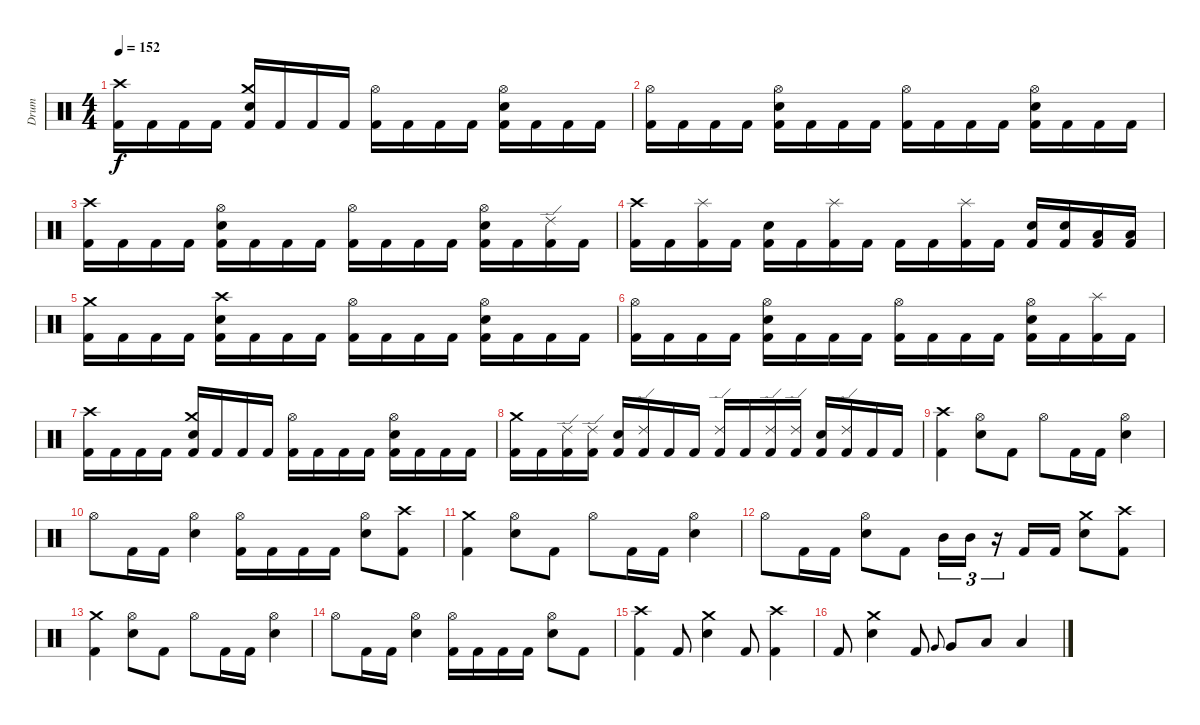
\track ("Drum" "Drum") {instrument percussion}
\staff {score}
\articulation defaults
\ts (4 4)
\tempo 152
\clef neutral
\ks c
("Crash high (hit)" "Kick (hit) 2").16{dy f} "Kick (hit) 2".16 "Kick (hit) 2".16 "Kick (hit) 2".16 ("Crash medium (hit)" "Snare (hit) 2" "Kick (hit) 2").16 "Kick (hit) 2".16 "Kick (hit) 2".16 "Kick (hit) 2".16 ("Hi-Hat (open)" "Kick (hit) 2").16 "Kick (hit) 2".16 "Kick (hit) 2".16 "Kick (hit) 2".16 ("Hi-Hat (open)" "Snare (hit) 2" "Kick (hit) 2").16 "Kick (hit) 2".16 "Kick (hit) 2".16 "Kick (hit) 2".16 |
("Hi-Hat (open)" "Kick (hit) 2").16 "Kick (hit) 2".16 "Kick (hit) 2".16 "Kick (hit) 2".16 ("Hi-Hat (open)" "Snare (hit) 2" "Kick (hit) 2").16 "Kick (hit) 2".16 "Kick (hit) 2".16 "Kick (hit) 2".16 ("Hi-Hat (open)" "Kick (hit) 2").16 "Kick (hit) 2".16 "Kick (hit) 2".16 "Kick (hit) 2".16 ("Hi-Hat (open)" "Snare (hit) 2" "Kick (hit) 2").16 "Kick (hit) 2".16 "Kick (hit) 2".16 "Kick (hit) 2".16 |
("Crash high (hit)" "Kick (hit) 2").16 "Kick (hit) 2".16 "Kick (hit) 2".16 "Kick (hit) 2".16 ("Hi-Hat (open)" "Snare (hit) 2" "Kick (hit) 2").16 "Kick (hit) 2".16 "Kick (hit) 2".16 "Kick (hit) 2".16 ("Hi-Hat (open)" "Kick (hit) 2").16 "Kick (hit) 2".16 "Kick (hit) 2".16 "Kick (hit) 2".16 ("Hi-Hat (open)" "Snare (hit) 2" "Kick (hit) 2").16 "Kick (hit) 2".16 ("Ride (edge) 2" "Kick (hit) 2").16 "Kick (hit) 2".16 |
("Crash high (hit)" "Kick (hit) 2").16 "Kick (hit) 2".16 ("Splash (hit)" "Kick (hit) 2").16 "Kick (hit) 2".16 ("Snare (hit) 2" "Kick (hit) 2").16 "Kick (hit) 2".16 ("Splash (hit)" "Kick (hit) 2").16 "Kick (hit) 2".16 "Kick (hit) 2".16 "Kick (hit) 2".16 ("Splash (hit)" "Kick (hit) 2").16 "Kick (hit) 2".16 ("Snare (hit) 2" "Kick (hit) 2").16 ("Snare (hit) 2" "Kick (hit) 2").16 ("Low Tom (hit)" "Kick (hit) 2").16 ("Low Tom (hit)" "Kick (hit) 2").16 |
("Crash medium (hit)" "Kick (hit) 2").16 "Kick (hit) 2".16 "Kick (hit) 2".16 "Kick (hit) 2".16 ("Crash high (hit)" "Snare (hit) 2" "Kick (hit) 2").16 "Kick (hit) 2".16 "Kick (hit) 2".16 "Kick (hit) 2".16 ("Hi-Hat (open)" "Kick (hit) 2").16 "Kick (hit) 2".16 "Kick (hit) 2".16 "Kick (hit) 2".16 ("Hi-Hat (open)" "Snare (hit) 2" "Kick (hit) 2").16 "Kick (hit) 2".16 "Kick (hit) 2".16 "Kick (hit) 2".16 |
("Hi-Hat (open)" "Kick (hit) 2").16 "Kick (hit) 2".16 "Kick (hit) 2".16 "Kick (hit) 2".16 ("Hi-Hat (open)" "Snare (hit) 2" "Kick (hit) 2").16 "Kick (hit) 2".16 "Kick (hit) 2".16 "Kick (hit) 2".16 ("Hi-Hat (open)" "Kick (hit) 2").16 "Kick (hit) 2".16 "Kick (hit) 2".16 "Kick (hit) 2".16 ("Hi-Hat (open)" "Snare (hit) 2" "Kick (hit) 2").16 "Kick (hit) 2".16 ("Splash (hit)" "Kick (hit) 2").16 "Kick (hit) 2".16 |
("Crash high (hit)" "Kick (hit) 2").16 "Kick (hit) 2".16 "Kick (hit) 2".16 "Kick (hit) 2".16 ("Crash medium (hit)" "Snare (hit) 2" "Kick (hit) 2").16 "Kick (hit) 2".16 "Kick (hit) 2".16 "Kick (hit) 2".16 ("Hi-Hat (open)" "Kick (hit) 2").16 "Kick (hit) 2".16 "Kick (hit) 2".16 "Kick (hit) 2".16 ("Hi-Hat (open)" "Snare (hit) 2" "Kick (hit) 2").16 "Kick (hit) 2".16 "Kick (hit) 2".16 "Kick (hit) 2".16 |
("Crash medium (hit)" "Kick (hit) 2").16 "Kick (hit) 2".16 ("Ride (edge) 2" "Kick (hit) 2").16 ("Ride (edge) 2" "Kick (hit) 2").16 ("Snare (hit) 2" "Kick (hit) 2").16 ("Ride (edge) 2" "Kick (hit) 2").16 "Kick (hit) 2".16 "Kick (hit) 2".16 ("Ride (edge) 2" "Kick (hit) 2").16 "Kick (hit) 2".16 ("Ride (edge) 2" "Kick (hit) 2").16 ("Ride (edge) 2" "Kick (hit) 2").16 ("Snare (hit) 2" "Kick (hit) 2").16 ("Ride (edge) 2" "Kick (hit) 2").16 "Kick (hit) 2".16 "Kick (hit) 2".16 |
("Crash high (hit)" "Kick (hit) 2").4 ("Hi-Hat (open)" "Snare (hit) 2").8 "Kick (hit) 2".8 "Hi-Hat (open)".8 "Kick (hit) 2".16 "Kick (hit) 2".16 ("Hi-Hat (open)" "Snare (hit) 2").4 |
"Hi-Hat (open)".8 "Kick (hit) 2".16 "Kick (hit) 2".16 ("Hi-Hat (open)" "Snare (hit) 2").4 ("Hi-Hat (open)" "Kick (hit) 2").16 "Kick (hit) 2".16 "Kick (hit) 2".16 "Kick (hit) 2".16 ("Hi-Hat (open)" "Snare (hit) 2").8 ("Crash high (hit)" "Kick (hit) 2").8 |
("Crash medium (hit)" "Kick (hit) 2").4 ("Hi-Hat (open)" "Snare (hit) 2").8 "Kick (hit) 2".8 "Hi-Hat (open)".8 "Kick (hit) 2".16 "Kick (hit) 2".16 ("Hi-Hat (open)" "Snare (hit) 2").4 |
"Hi-Hat (open)".8 "Kick (hit) 2".16 "Kick (hit) 2".16 ("Hi-Hat (open)" "Snare (hit) 2").8 "Kick (hit) 2".8 "Mid Tom (hit)".16{tu (3 2)} "Mid Tom (hit)".16{tu (3 2)} r.16{tu (3 2)} "Kick (hit) 2".16 "Kick (hit) 2".16 ("Crash medium (hit)" "Snare (hit) 2").8 ("Crash high (hit)" "Kick (hit) 2").8 |
("Crash medium (hit)" "Kick (hit) 2").4 ("Hi-Hat (open)" "Snare (hit) 2").8 "Kick (hit) 2".8 "Hi-Hat (open)".8 "Kick (hit) 2".16 "Kick (hit) 2".16 ("Hi-Hat (open)" "Snare (hit) 2").4 |
"Hi-Hat (open)".8 "Kick (hit) 2".16 "Kick (hit) 2".16 ("Hi-Hat (open)" "Snare (hit) 2").4 ("Hi-Hat (open)" "Kick (hit) 2").16 "Kick (hit) 2".16 "Kick (hit) 2".16 "Kick (hit) 2".16 ("Hi-Hat (open)" "Snare (hit) 2").8 "Kick (hit) 2".8 |
("Crash high (hit)" "Kick (hit) 2").4 "Kick (hit) 2".8 ("Crash medium (hit)" "Snare (hit) 2").4 "Kick (hit) 2".8 ("Crash high (hit)" "Kick (hit) 2").4 |
"Kick (hit) 2".8 ("Crash medium (hit)" "Snare (hit) 2").4 "Kick (hit) 2".8 "Very Low Tom (hit)".8{gr onbeat} "Very Low Tom (hit)".8 "Low Floor Tom (hit)".8 "Low Floor Tom (hit)".4
